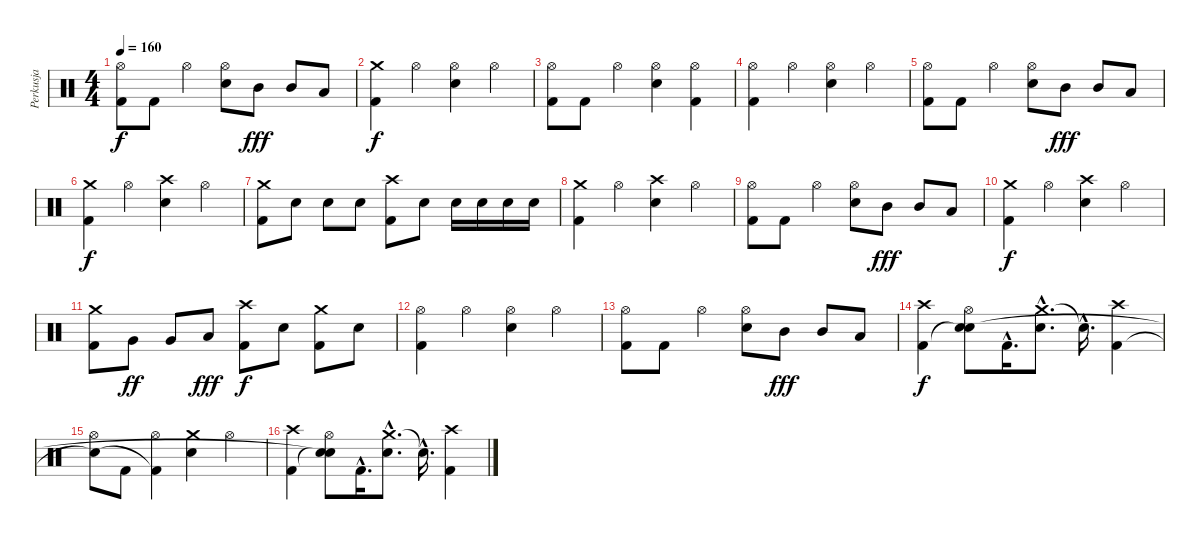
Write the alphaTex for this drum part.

\track ("Perkusja" "Perkusja") {instrument percussion}
\staff {score}
\articulation defaults
\ts (4 4)
\tempo 160
\clef neutral
\ks c
("Hi-Hat (open)" "Kick (hit) 2").8{dy f} "Kick (hit) 2".8 "Hi-Hat (open)".4 ("Hi-Hat (open)" "Snare (hit) 2").8 "Mid Tom (hit)".8{dy fff} "Mid Tom (hit)".8 "Low Tom (hit)".8 |
("Crash medium (hit)" "Kick (hit) 2").4{dy f} "Hi-Hat (open)".4 ("Hi-Hat (open)" "Snare (hit) 2").4 "Hi-Hat (open)".4 |
("Hi-Hat (open)" "Kick (hit) 2").8 "Kick (hit) 2".8 "Hi-Hat (open)".4 ("Hi-Hat (open)" "Snare (hit) 2").4 ("Hi-Hat (open)" "Kick (hit) 2").4 |
("Hi-Hat (open)" "Kick (hit) 2").4 "Hi-Hat (open)".4 ("Hi-Hat (open)" "Snare (hit) 2").4 "Hi-Hat (open)".4 |
("Hi-Hat (open)" "Kick (hit) 2").8 "Kick (hit) 2".8 "Hi-Hat (open)".4 ("Hi-Hat (open)" "Snare (hit) 2").8 "Mid Tom (hit)".8{dy fff} "Mid Tom (hit)".8 "Low Tom (hit)".8 |
("Crash medium (hit)" "Kick (hit) 2").4{dy f} "Hi-Hat (open)".4 ("Crash high (hit)" "Snare (hit) 2").4 "Hi-Hat (open)".4 |
("Crash medium (hit)" "Kick (hit) 2").8 "Snare (hit) 2".8 "Snare (hit) 2".8 "Snare (hit) 2".8 ("Crash high (hit)" "Kick (hit) 2").8 "Snare (hit) 2".8 "Snare (hit) 2".16 "Snare (hit) 2".16 "Snare (hit) 2".16 "Snare (hit) 2".16 |
("Crash medium (hit)" "Kick (hit) 2").4 "Hi-Hat (open)".4 ("Crash high (hit)" "Snare (hit) 2").4 "Hi-Hat (open)".4 |
("Hi-Hat (open)" "Kick (hit) 2").8 "Kick (hit) 2".8 "Hi-Hat (open)".4 ("Hi-Hat (open)" "Snare (hit) 2").8 "Mid Tom (hit)".8{dy fff} "Mid Tom (hit)".8 "Low Tom (hit)".8 |
("Crash medium (hit)" "Kick (hit) 2").4{dy f} "Hi-Hat (open)".4 ("Crash high (hit)" "Snare (hit) 2").4 "Hi-Hat (open)".4 |
("Crash medium (hit)" "Kick (hit) 2").8 "Very Low Tom (hit)".8{dy ff} "Very Low Tom (hit)".8 "Low Floor Tom (hit)".8{dy fff} ("Crash high (hit)" "Kick (hit) 2").8{dy f} "Snare (hit) 2".8 ("Crash medium (hit)" "Kick (hit) 2").8 "Snare (hit) 2".8 |
("Hi-Hat (open)" "Kick (hit) 2").4 "Hi-Hat (open)".4 ("Hi-Hat (open)" "Snare (hit) 2").4 "Hi-Hat (open)".4 |
("Hi-Hat (open)" "Kick (hit) 2").8 "Kick (hit) 2".8 "Hi-Hat (open)".4 ("Hi-Hat (open)" "Snare (hit) 2").8 "Mid Tom (hit)".8{dy fff} "Mid Tom (hit)".8 "Low Tom (hit)".8 |
("Crash high (hit)" "Kick (hit) 2").4{dy f} ("Hi-Hat (open)" "Snare (hit)"{t} "Snare (hit)").8 "Kick (hit) 2"{hac}.16{d} ("Crash medium (hit)"{hac} "Snare (hit) 2"{hac}).8{d} "Snare (hit)"{hac t}.16{d} ("Crash high (hit)" "Kick (hit) 2").4 |
("Hi-Hat (open)" "Snare (hit)"{t}).8 "Kick (hit) 2".8 ("Hi-Hat (open)" "Kick (hit) 2"{t}).4 ("Crash medium (hit)" "Snare (hit) 2").4 "Hi-Hat (open)".4 |
("Crash high (hit)" "Kick (hit) 2").4 ("Hi-Hat (open)" "Snare (hit)"{t} "Snare (hit)"{t}).8 "Kick (hit) 2"{hac}.16{d} ("Crash medium (hit)"{hac} "Snare (hit) 2"{hac}).8{d} "Snare (hit)"{hac t}.16{d} ("Crash high (hit)" "Kick (hit) 2").4
